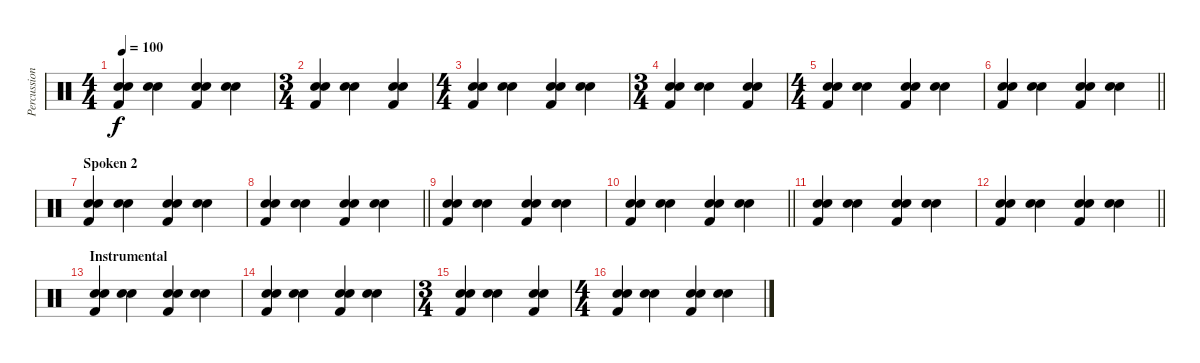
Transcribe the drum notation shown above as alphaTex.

\track ("Percussion" "Percussion") {instrument percussion}
\staff {score}
\articulation defaults
\ts (4 4)
\tempo 100
\clef neutral
\ks c
("Snare (hit) 2" "Hand Clap (hit)" "Kick (hit) 2").4{dy f} ("Snare (hit) 2" "Hand Clap (hit)").4 ("Snare (hit) 2" "Hand Clap (hit)" "Kick (hit) 2").4 ("Snare (hit) 2" "Hand Clap (hit)").4 |
\ts (3 4)
("Snare (hit) 2" "Hand Clap (hit)" "Kick (hit) 2").4 ("Snare (hit) 2" "Hand Clap (hit)").4 ("Snare (hit) 2" "Hand Clap (hit)" "Kick (hit) 2").4 |
\ts (4 4)
("Snare (hit) 2" "Hand Clap (hit)" "Kick (hit) 2").4 ("Snare (hit) 2" "Hand Clap (hit)").4 ("Snare (hit) 2" "Hand Clap (hit)" "Kick (hit) 2").4 ("Snare (hit) 2" "Hand Clap (hit)").4 |
\ts (3 4)
("Snare (hit) 2" "Hand Clap (hit)" "Kick (hit) 2").4 ("Snare (hit) 2" "Hand Clap (hit)").4 ("Snare (hit) 2" "Hand Clap (hit)" "Kick (hit) 2").4 |
\ts (4 4)
("Snare (hit) 2" "Hand Clap (hit)" "Kick (hit) 2").4 ("Snare (hit) 2" "Hand Clap (hit)").4 ("Snare (hit) 2" "Hand Clap (hit)" "Kick (hit) 2").4 ("Snare (hit) 2" "Hand Clap (hit)").4 |
\barLineRight lightlight
("Snare (hit) 2" "Hand Clap (hit)" "Kick (hit) 2").4 ("Snare (hit) 2" "Hand Clap (hit)").4 ("Snare (hit) 2" "Hand Clap (hit)" "Kick (hit) 2").4 ("Snare (hit) 2" "Hand Clap (hit)").4 |
\section ("" "Spoken 2")
("Snare (hit) 2" "Hand Clap (hit)" "Kick (hit) 2").4 ("Snare (hit) 2" "Hand Clap (hit)").4 ("Snare (hit) 2" "Hand Clap (hit)" "Kick (hit) 2").4 ("Snare (hit) 2" "Hand Clap (hit)").4 |
\barLineRight lightlight
("Snare (hit) 2" "Hand Clap (hit)" "Kick (hit) 2").4 ("Snare (hit) 2" "Hand Clap (hit)").4 ("Snare (hit) 2" "Hand Clap (hit)" "Kick (hit) 2").4 ("Snare (hit) 2" "Hand Clap (hit)").4 |
("Snare (hit) 2" "Hand Clap (hit)" "Kick (hit) 2").4 ("Snare (hit) 2" "Hand Clap (hit)").4 ("Snare (hit) 2" "Hand Clap (hit)" "Kick (hit) 2").4 ("Snare (hit) 2" "Hand Clap (hit)").4 |
\barLineRight lightlight
("Snare (hit) 2" "Hand Clap (hit)" "Kick (hit) 2").4 ("Snare (hit) 2" "Hand Clap (hit)").4 ("Snare (hit) 2" "Hand Clap (hit)" "Kick (hit) 2").4 ("Snare (hit) 2" "Hand Clap (hit)").4 |
("Snare (hit) 2" "Hand Clap (hit)" "Kick (hit) 2").4 ("Snare (hit) 2" "Hand Clap (hit)").4 ("Snare (hit) 2" "Hand Clap (hit)" "Kick (hit) 2").4 ("Snare (hit) 2" "Hand Clap (hit)").4 |
\barLineRight lightlight
("Snare (hit) 2" "Hand Clap (hit)" "Kick (hit) 2").4 ("Snare (hit) 2" "Hand Clap (hit)").4 ("Snare (hit) 2" "Hand Clap (hit)" "Kick (hit) 2").4 ("Snare (hit) 2" "Hand Clap (hit)").4 |
\section ("" "Instrumental")
("Snare (hit) 2" "Hand Clap (hit)" "Kick (hit) 2").4 ("Snare (hit) 2" "Hand Clap (hit)").4 ("Snare (hit) 2" "Hand Clap (hit)" "Kick (hit) 2").4 ("Snare (hit) 2" "Hand Clap (hit)").4 |
("Snare (hit) 2" "Hand Clap (hit)" "Kick (hit) 2").4 ("Snare (hit) 2" "Hand Clap (hit)").4 ("Snare (hit) 2" "Hand Clap (hit)" "Kick (hit) 2").4 ("Snare (hit) 2" "Hand Clap (hit)").4 |
\ts (3 4)
("Snare (hit) 2" "Hand Clap (hit)" "Kick (hit) 2").4 ("Snare (hit) 2" "Hand Clap (hit)").4 ("Snare (hit) 2" "Hand Clap (hit)" "Kick (hit) 2").4 |
\ts (4 4)
("Snare (hit) 2" "Hand Clap (hit)" "Kick (hit) 2").4 ("Snare (hit) 2" "Hand Clap (hit)").4 ("Snare (hit) 2" "Hand Clap (hit)" "Kick (hit) 2").4 ("Snare (hit) 2" "Hand Clap (hit)").4
